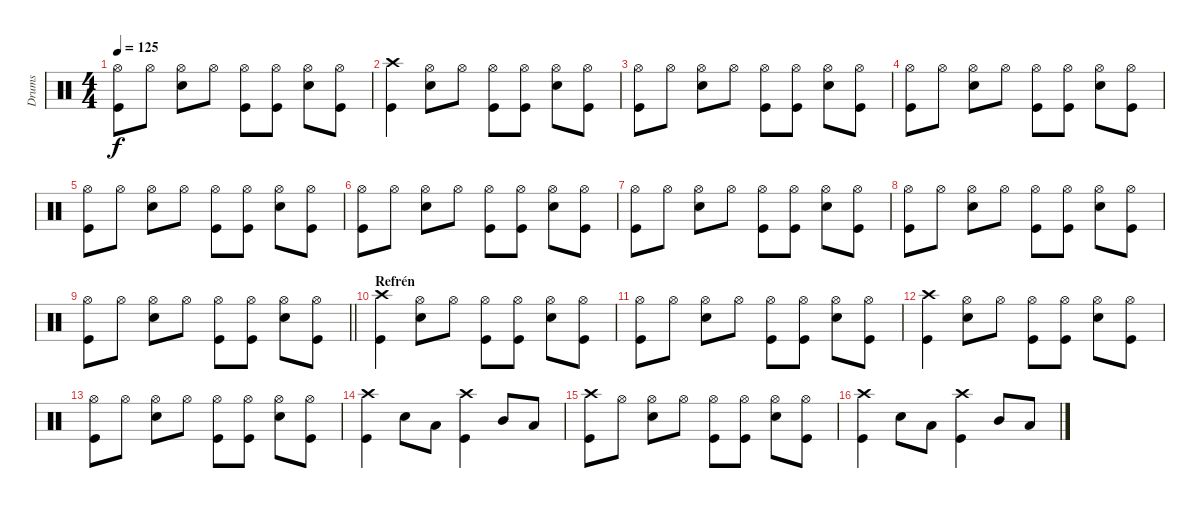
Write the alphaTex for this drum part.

\track ("Drums" "Drums") {instrument percussion}
\staff {score}
\articulation defaults
\ts (4 4)
\tempo 125
\clef neutral
\ks c
("Hi-Hat (open)" "Kick (hit)").8{dy f} "Hi-Hat (open)".8 ("Hi-Hat (open)" "Electric Snare (hit)").8 "Hi-Hat (open)".8 ("Hi-Hat (open)" "Kick (hit)").8 ("Hi-Hat (open)" "Kick (hit)").8 ("Hi-Hat (open)" "Electric Snare (hit)").8 ("Hi-Hat (open)" "Kick (hit)").8 |
("Crash high (hit)" "Kick (hit)").4 ("Hi-Hat (open)" "Electric Snare (hit)").8 "Hi-Hat (open)".8 ("Hi-Hat (open)" "Kick (hit)").8 ("Hi-Hat (open)" "Kick (hit)").8 ("Hi-Hat (open)" "Electric Snare (hit)").8 ("Hi-Hat (open)" "Kick (hit)").8 |
("Hi-Hat (open)" "Kick (hit)").8 "Hi-Hat (open)".8 ("Hi-Hat (open)" "Electric Snare (hit)").8 "Hi-Hat (open)".8 ("Hi-Hat (open)" "Kick (hit)").8 ("Hi-Hat (open)" "Kick (hit)").8 ("Hi-Hat (open)" "Electric Snare (hit)").8 ("Hi-Hat (open)" "Kick (hit)").8 |
("Hi-Hat (open)" "Kick (hit)").8 "Hi-Hat (open)".8 ("Hi-Hat (open)" "Electric Snare (hit)").8 "Hi-Hat (open)".8 ("Hi-Hat (open)" "Kick (hit)").8 ("Hi-Hat (open)" "Kick (hit)").8 ("Hi-Hat (open)" "Electric Snare (hit)").8 ("Hi-Hat (open)" "Kick (hit)").8 |
("Hi-Hat (open)" "Kick (hit)").8 "Hi-Hat (open)".8 ("Hi-Hat (open)" "Electric Snare (hit)").8 "Hi-Hat (open)".8 ("Hi-Hat (open)" "Kick (hit)").8 ("Hi-Hat (open)" "Kick (hit)").8 ("Hi-Hat (open)" "Electric Snare (hit)").8 ("Hi-Hat (open)" "Kick (hit)").8 |
("Hi-Hat (open)" "Kick (hit)").8 "Hi-Hat (open)".8 ("Hi-Hat (open)" "Electric Snare (hit)").8 "Hi-Hat (open)".8 ("Hi-Hat (open)" "Kick (hit)").8 ("Hi-Hat (open)" "Kick (hit)").8 ("Hi-Hat (open)" "Electric Snare (hit)").8 ("Hi-Hat (open)" "Kick (hit)").8 |
("Hi-Hat (open)" "Kick (hit)").8 "Hi-Hat (open)".8 ("Hi-Hat (open)" "Electric Snare (hit)").8 "Hi-Hat (open)".8 ("Hi-Hat (open)" "Kick (hit)").8 ("Hi-Hat (open)" "Kick (hit)").8 ("Hi-Hat (open)" "Electric Snare (hit)").8 ("Hi-Hat (open)" "Kick (hit)").8 |
("Hi-Hat (open)" "Kick (hit)").8 "Hi-Hat (open)".8 ("Hi-Hat (open)" "Electric Snare (hit)").8 "Hi-Hat (open)".8 ("Hi-Hat (open)" "Kick (hit)").8 ("Hi-Hat (open)" "Kick (hit)").8 ("Hi-Hat (open)" "Electric Snare (hit)").8 ("Hi-Hat (open)" "Kick (hit)").8 |
\barLineRight lightlight
("Hi-Hat (open)" "Kick (hit)").8 "Hi-Hat (open)".8 ("Hi-Hat (open)" "Electric Snare (hit)").8 "Hi-Hat (open)".8 ("Hi-Hat (open)" "Kick (hit)").8 ("Hi-Hat (open)" "Kick (hit)").8 ("Hi-Hat (open)" "Electric Snare (hit)").8 ("Hi-Hat (open)" "Kick (hit)").8 |
\section ("" "Refrén")
("Crash high (hit)" "Kick (hit)").4 ("Hi-Hat (open)" "Electric Snare (hit)").8 "Hi-Hat (open)".8 ("Hi-Hat (open)" "Kick (hit)").8 ("Hi-Hat (open)" "Kick (hit)").8 ("Hi-Hat (open)" "Electric Snare (hit)").8 ("Hi-Hat (open)" "Kick (hit)").8 |
("Hi-Hat (open)" "Kick (hit)").8 "Hi-Hat (open)".8 ("Hi-Hat (open)" "Electric Snare (hit)").8 "Hi-Hat (open)".8 ("Hi-Hat (open)" "Kick (hit)").8 ("Hi-Hat (open)" "Kick (hit)").8 ("Hi-Hat (open)" "Electric Snare (hit)").8 ("Hi-Hat (open)" "Kick (hit)").8 |
("Crash high (hit)" "Kick (hit)").4 ("Hi-Hat (open)" "Electric Snare (hit)").8 "Hi-Hat (open)".8 ("Hi-Hat (open)" "Kick (hit)").8 ("Hi-Hat (open)" "Kick (hit)").8 ("Hi-Hat (open)" "Electric Snare (hit)").8 ("Hi-Hat (open)" "Kick (hit)").8 |
("Hi-Hat (open)" "Kick (hit)").8 "Hi-Hat (open)".8 ("Hi-Hat (open)" "Electric Snare (hit)").8 "Hi-Hat (open)".8 ("Hi-Hat (open)" "Kick (hit)").8 ("Hi-Hat (open)" "Kick (hit)").8 ("Hi-Hat (open)" "Electric Snare (hit)").8 ("Hi-Hat (open)" "Kick (hit)").8 |
("Crash high (hit)" "Kick (hit)").4 "Electric Snare (hit)".8 "Low Tom (hit)".8 ("Crash high (hit)" "Kick (hit)").4 "Mid Tom (hit)".8 "Low Tom (hit)".8 |
("Crash high (hit)" "Kick (hit)").8 "Hi-Hat (open)".8 ("Hi-Hat (open)" "Electric Snare (hit)").8 "Hi-Hat (open)".8 ("Hi-Hat (open)" "Kick (hit)").8 ("Hi-Hat (open)" "Kick (hit)").8 ("Hi-Hat (open)" "Electric Snare (hit)").8 ("Hi-Hat (open)" "Kick (hit)").8 |
("Crash high (hit)" "Kick (hit)").4 "Electric Snare (hit)".8 "Low Tom (hit)".8 ("Crash high (hit)" "Kick (hit)").4 "Mid Tom (hit)".8 "Low Tom (hit)".8
